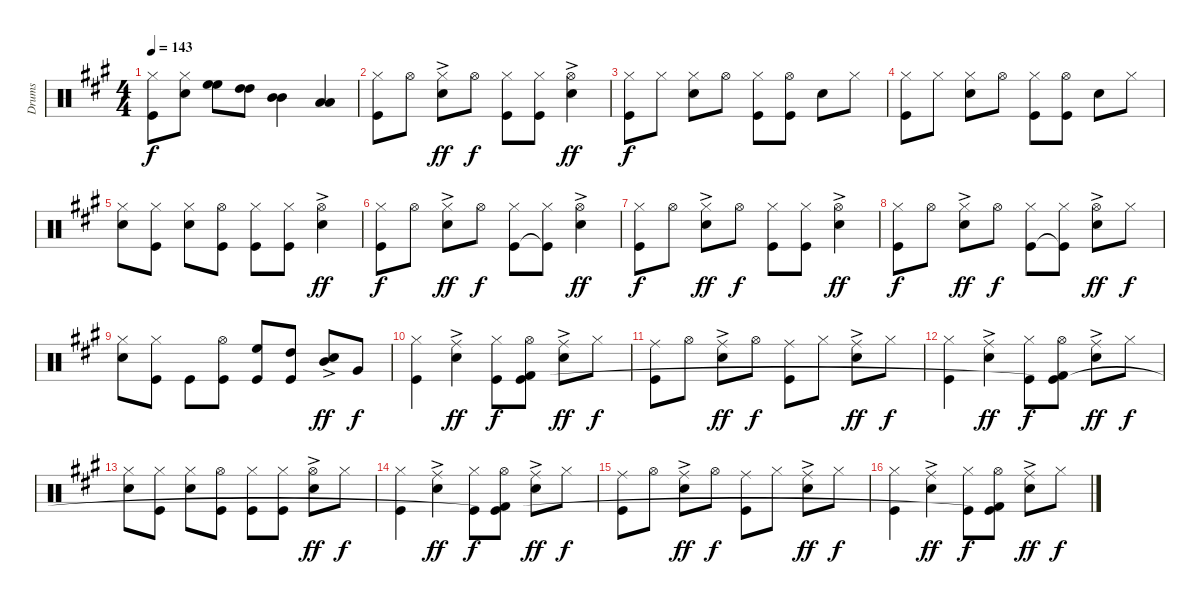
\track ("Drums" "Drums") {instrument percussion}
\staff {score}
\articulation defaults
\ts (4 4)
\tempo 143
\clef neutral
\ks a
("Hi-Hat (closed)" "Kick (hit)").8{dy f} ("Hi-Hat (closed)" "Snare (hit) 2").8 ("High Floor Tom (hit)" "High Floor Tom (hit)").8{bd 120} ("High Tom (hit)" "High Tom (hit)").8{bd 120} ("Mid Tom (hit)" "Mid Tom (hit)").4 ("Low Tom (hit)" "Low Tom (hit)").4 |
("Hi-Hat (closed)" "Kick (hit)").8 "Hi-Hat (open)".8 ("Hi-Hat (closed)" "Snare (hit) 2"{ac}).8{dy ff} "Hi-Hat (open)".8{dy f} ("Hi-Hat (closed)" "Kick (hit)").8 ("Hi-Hat (closed)" "Kick (hit)").8 ("Hi-Hat (open)"{ac} "Snare (hit) 2").4{dy ff} |
("Hi-Hat (closed)" "Kick (hit)").8{dy f} "Hi-Hat (closed)".8 ("Hi-Hat (closed)" "Snare (hit) 2").8 "Hi-Hat (open)".8 ("Hi-Hat (closed)" "Kick (hit)").8 ("Hi-Hat (open)" "Kick (hit)").8 "Snare (hit) 2".8 "Hi-Hat (closed)".8 |
("Hi-Hat (closed)" "Kick (hit)").8 "Hi-Hat (closed)".8 ("Hi-Hat (closed)" "Snare (hit) 2").8 "Hi-Hat (open)".8 ("Hi-Hat (closed)" "Kick (hit)").8 ("Hi-Hat (open)" "Kick (hit)").8 "Snare (hit) 2".8 "Hi-Hat (closed)".8 |
("Hi-Hat (closed)" "Snare (hit) 2").8 ("Hi-Hat (closed)" "Kick (hit)").8 ("Hi-Hat (closed)" "Snare (hit) 2").8 ("Hi-Hat (open)" "Kick (hit)").8 ("Hi-Hat (closed)" "Kick (hit)").8 ("Hi-Hat (closed)" "Kick (hit)").8 ("Hi-Hat (open)" "Snare (hit) 2"{ac}).4{dy ff} |
("Hi-Hat (closed)" "Kick (hit)").8{dy f} "Hi-Hat (open)".8 ("Hi-Hat (closed)" "Snare (hit) 2"{ac}).8{dy ff} "Hi-Hat (open)".8{dy f} ("Hi-Hat (closed)" "Kick (hit)").8 ("Hi-Hat (closed)" "Kick (hit)"{t}).8 ("Hi-Hat (open)"{ac} "Snare (hit) 2").4{dy ff} |
("Hi-Hat (closed)" "Kick (hit)").8{dy f} "Hi-Hat (open)".8 ("Hi-Hat (closed)" "Snare (hit) 2"{ac}).8{dy ff} "Hi-Hat (open)".8{dy f} ("Hi-Hat (closed)" "Kick (hit)").8 ("Hi-Hat (closed)" "Kick (hit)").8 ("Hi-Hat (open)"{ac} "Snare (hit) 2").4{dy ff} |
("Hi-Hat (closed)" "Kick (hit)").8{dy f} "Hi-Hat (open)".8 ("Hi-Hat (closed)" "Snare (hit) 2"{ac}).8{dy ff} "Hi-Hat (open)".8{dy f} ("Hi-Hat (closed)" "Kick (hit)").8 ("Hi-Hat (closed)" "Kick (hit)"{t}).8 ("Hi-Hat (open)"{ac} "Snare (hit) 2").8{dy ff} "Hi-Hat (closed)".8{dy f} |
("Hi-Hat (closed)" "Snare (hit) 2").8 ("Hi-Hat (closed)" "Kick (hit)").8 "Kick (hit)".8 ("Hi-Hat (open)" "Kick (hit)").8 ("High Floor Tom (hit)" "Kick (hit)").8 ("High Tom (hit)" "Kick (hit)").8 ("Mid Tom (hit)" "Snare (hit) 2"{ac}).8{dy ff} "Very Low Tom (hit)".8{dy f} |
("Hi-Hat (closed)" "Kick (hit)").4 ("Ride (middle)" "Snare (hit) 2"{ac}).4{dy ff} ("Hi-Hat (closed)" "Kick (hit)").8{dy f} ("Hi-Hat (open)" "Kick (hit) 2" "Kick (hit)").8 ("Ride (middle)"{ac} "Snare (hit) 2").8{dy ff} "Hi-Hat (closed)".8{dy f} |
("Ride (middle)" "Kick (hit)").8 "Hi-Hat (open)".8 ("Ride (middle)" "Snare (hit) 2"{ac}).8{dy ff} "Hi-Hat (open)".8{dy f} ("Ride (middle)" "Kick (hit)").8 "Hi-Hat (closed)".8 ("Ride (middle)"{ac} "Snare (hit) 2").8{dy ff} "Hi-Hat (closed)".8{dy f} |
("Hi-Hat (closed)" "Kick (hit)").4 ("Ride (middle)" "Snare (hit) 2"{ac}).4{dy ff} ("Hi-Hat (closed)" "Kick (hit)").8{dy f} ("Hi-Hat (open)" "Kick (hit) 2" "Kick (hit)"{t}).8 ("Ride (middle)"{ac} "Snare (hit) 2").8{dy ff} "Hi-Hat (closed)".8{dy f} |
("Hi-Hat (closed)" "Snare (hit) 2").8 ("Hi-Hat (closed)" "Kick (hit)").8 ("Hi-Hat (closed)" "Snare (hit) 2").8 ("Hi-Hat (open)" "Kick (hit)").8 ("Hi-Hat (closed)" "Kick (hit)").8 ("Hi-Hat (closed)" "Kick (hit)").8 ("Hi-Hat (open)" "Snare (hit) 2"{ac}).8{dy ff} "Hi-Hat (closed)".8{dy f} |
("Hi-Hat (closed)" "Kick (hit)").4 ("Ride (middle)" "Snare (hit) 2"{ac}).4{dy ff} ("Hi-Hat (closed)" "Kick (hit)").8{dy f} ("Hi-Hat (open)" "Kick (hit) 2" "Kick (hit)"{t}).8 ("Ride (middle)"{ac} "Snare (hit) 2").8{dy ff} "Hi-Hat (closed)".8{dy f} |
("Ride (middle)" "Kick (hit)").8 "Hi-Hat (open)".8 ("Ride (middle)" "Snare (hit) 2"{ac}).8{dy ff} "Hi-Hat (open)".8{dy f} ("Ride (middle)" "Kick (hit)").8 "Hi-Hat (closed)".8 ("Ride (middle)"{ac} "Snare (hit) 2").8{dy ff} "Hi-Hat (closed)".8{dy f} |
("Hi-Hat (closed)" "Kick (hit)").4 ("Ride (middle)" "Snare (hit) 2"{ac}).4{dy ff} ("Hi-Hat (closed)" "Kick (hit)").8{dy f} ("Hi-Hat (open)" "Kick (hit) 2" "Kick (hit)"{t}).8 ("Ride (middle)"{ac} "Snare (hit) 2").8{dy ff} "Hi-Hat (closed)".8{dy f}
